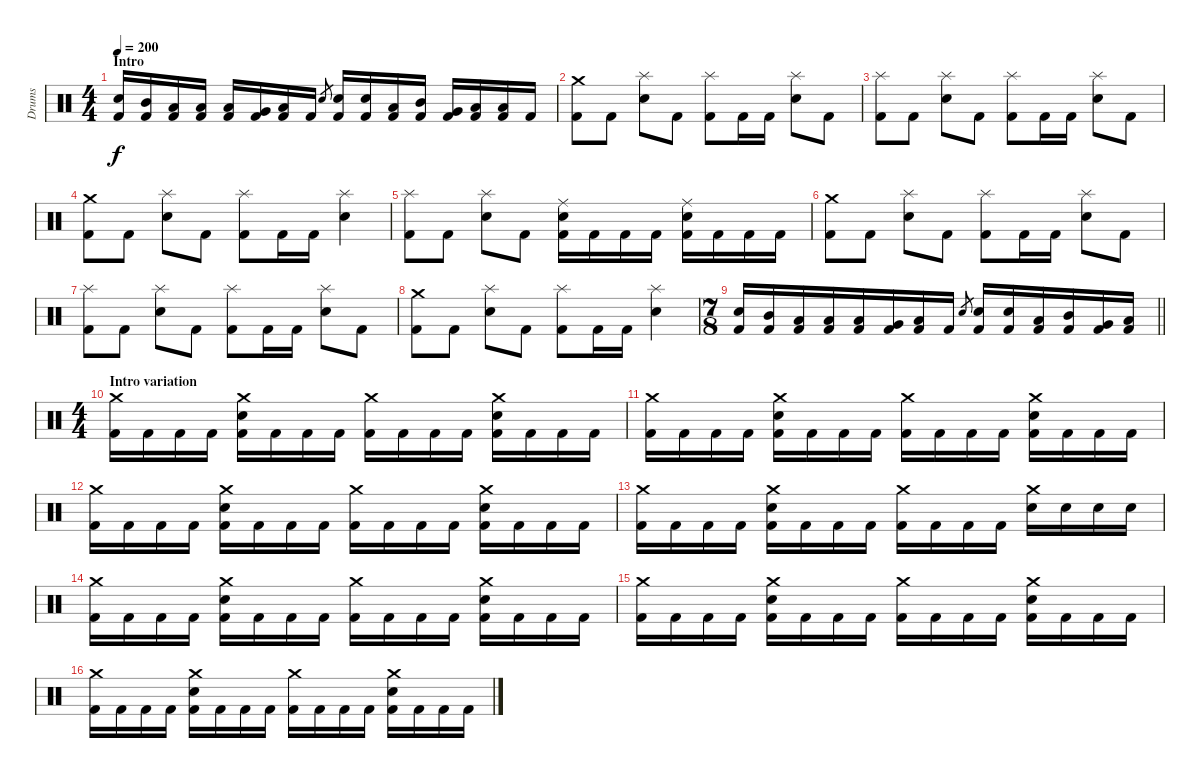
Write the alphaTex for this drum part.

\track ("Drums" "Drums") {instrument percussion}
\staff {score}
\articulation defaults
\ts (4 4)
\section ("" "Intro")
\tempo 200
\clef neutral
\ks c
("Electric Snare (hit)" "Kick (hit) 2").16{dy f} ("Mid Tom (hit)" "Kick (hit) 2").16 ("Low Tom (hit)" "Kick (hit) 2").16 ("Low Tom (hit)" "Kick (hit) 2").16 ("Low Tom (hit)" "Kick (hit) 2").16 ("Very Low Tom (hit)" "Kick (hit) 2").16 ("Low Floor Tom (hit)" "Kick (hit) 2").16 "Kick (hit) 2".16 "Electric Snare (hit)".8{gr} ("Electric Snare (hit)" "Kick (hit) 2").16 ("Electric Snare (hit)" "Kick (hit) 2").16 ("Low Tom (hit)" "Kick (hit) 2").16 ("Mid Tom (hit)" "Kick (hit) 2").16 ("Very Low Tom (hit)" "Kick (hit) 2").16 ("Low Floor Tom (hit)" "Kick (hit) 2").16 ("Low Floor Tom (hit)" "Kick (hit) 2").16 "Kick (hit) 2".16 |
("Crash medium (hit)" "Kick (hit) 2").8 "Kick (hit) 2".8 ("Splash (hit)" "Electric Snare (hit)").8 "Kick (hit) 2".8 ("Splash (hit)" "Kick (hit) 2").8 "Kick (hit) 2".16 "Kick (hit) 2".16 ("Splash (hit)" "Electric Snare (hit)").8 "Kick (hit) 2".8 |
("Splash (hit)" "Kick (hit) 2").8 "Kick (hit) 2".8 ("Splash (hit)" "Electric Snare (hit)").8 "Kick (hit) 2".8 ("Splash (hit)" "Kick (hit) 2").8 "Kick (hit) 2".16 "Kick (hit) 2".16 ("Splash (hit)" "Electric Snare (hit)").8 "Kick (hit) 2".8 |
("Crash medium (hit)" "Kick (hit) 2").8 "Kick (hit) 2".8 ("Splash (hit)" "Electric Snare (hit)").8 "Kick (hit) 2".8 ("Splash (hit)" "Kick (hit) 2").8 "Kick (hit) 2".16 "Kick (hit) 2".16 ("Splash (hit)" "Electric Snare (hit)").4 |
("Splash (hit)" "Kick (hit) 2").8 "Kick (hit) 2".8 ("Splash (hit)" "Electric Snare (hit)").8 "Kick (hit) 2".8 ("Ride (middle)" "Electric Snare (hit)" "Kick (hit) 2").16 "Kick (hit) 2".16 "Kick (hit) 2".16 "Kick (hit) 2".16 ("Ride (middle)" "Electric Snare (hit)" "Kick (hit) 2").16 "Kick (hit) 2".16 "Kick (hit) 2".16 "Kick (hit) 2".16 |
("Crash medium (hit)" "Kick (hit) 2").8 "Kick (hit) 2".8 ("Splash (hit)" "Electric Snare (hit)").8 "Kick (hit) 2".8 ("Splash (hit)" "Kick (hit) 2").8 "Kick (hit) 2".16 "Kick (hit) 2".16 ("Splash (hit)" "Electric Snare (hit)").8 "Kick (hit) 2".8 |
("Splash (hit)" "Kick (hit) 2").8 "Kick (hit) 2".8 ("Splash (hit)" "Electric Snare (hit)").8 "Kick (hit) 2".8 ("Splash (hit)" "Kick (hit) 2").8 "Kick (hit) 2".16 "Kick (hit) 2".16 ("Splash (hit)" "Electric Snare (hit)").8 "Kick (hit) 2".8 |
("Crash medium (hit)" "Kick (hit) 2").8 "Kick (hit) 2".8 ("Splash (hit)" "Electric Snare (hit)").8 "Kick (hit) 2".8 ("Splash (hit)" "Kick (hit) 2").8 "Kick (hit) 2".16 "Kick (hit) 2".16 ("Splash (hit)" "Electric Snare (hit)").4 |
\ts (7 8)
\barLineRight lightlight
("Electric Snare (hit)" "Kick (hit) 2").16 ("Mid Tom (hit)" "Kick (hit) 2").16 ("Low Tom (hit)" "Kick (hit) 2").16 ("Low Tom (hit)" "Kick (hit) 2").16 ("Low Tom (hit)" "Kick (hit) 2").16 ("Very Low Tom (hit)" "Kick (hit) 2").16 ("Low Floor Tom (hit)" "Kick (hit) 2").16 "Kick (hit) 2".16 "Electric Snare (hit)".8{gr} ("Electric Snare (hit)" "Kick (hit) 2").16 ("Electric Snare (hit)" "Kick (hit) 2").16 ("Low Tom (hit)" "Kick (hit) 2").16 ("Mid Tom (hit)" "Kick (hit) 2").16 ("Very Low Tom (hit)" "Kick (hit) 2").16 ("Low Floor Tom (hit)" "Kick (hit) 2").16 |
\ts (4 4)
\section ("" "Intro variation")
("Crash medium (hit)" "Kick (hit) 2").16 "Kick (hit) 2".16 "Kick (hit) 2".16 "Kick (hit) 2".16 ("Crash medium (hit)" "Electric Snare (hit)" "Kick (hit) 2").16 "Kick (hit) 2".16 "Kick (hit) 2".16 "Kick (hit) 2".16 ("Crash medium (hit)" "Kick (hit) 2").16 "Kick (hit) 2".16 "Kick (hit) 2".16 "Kick (hit) 2".16 ("Crash medium (hit)" "Electric Snare (hit)" "Kick (hit) 2").16 "Kick (hit) 2".16 "Kick (hit) 2".16 "Kick (hit) 2".16 |
("Crash medium (hit)" "Kick (hit) 2").16 "Kick (hit) 2".16 "Kick (hit) 2".16 "Kick (hit) 2".16 ("Crash medium (hit)" "Electric Snare (hit)" "Kick (hit) 2").16 "Kick (hit) 2".16 "Kick (hit) 2".16 "Kick (hit) 2".16 ("Crash medium (hit)" "Kick (hit) 2").16 "Kick (hit) 2".16 "Kick (hit) 2".16 "Kick (hit) 2".16 ("Crash medium (hit)" "Electric Snare (hit)" "Kick (hit) 2").16 "Kick (hit) 2".16 "Kick (hit) 2".16 "Kick (hit) 2".16 |
("Crash medium (hit)" "Kick (hit) 2").16 "Kick (hit) 2".16 "Kick (hit) 2".16 "Kick (hit) 2".16 ("Crash medium (hit)" "Electric Snare (hit)" "Kick (hit) 2").16 "Kick (hit) 2".16 "Kick (hit) 2".16 "Kick (hit) 2".16 ("Crash medium (hit)" "Kick (hit) 2").16 "Kick (hit) 2".16 "Kick (hit) 2".16 "Kick (hit) 2".16 ("Crash medium (hit)" "Electric Snare (hit)" "Kick (hit) 2").16 "Kick (hit) 2".16 "Kick (hit) 2".16 "Kick (hit) 2".16 |
("Crash medium (hit)" "Kick (hit) 2").16 "Kick (hit) 2".16 "Kick (hit) 2".16 "Kick (hit) 2".16 ("Crash medium (hit)" "Electric Snare (hit)" "Kick (hit) 2").16 "Kick (hit) 2".16 "Kick (hit) 2".16 "Kick (hit) 2".16 ("Crash medium (hit)" "Kick (hit) 2").16 "Kick (hit) 2".16 "Kick (hit) 2".16 "Kick (hit) 2".16 ("Crash medium (hit)" "Electric Snare (hit)").16 "Electric Snare (hit)".16 "Electric Snare (hit)".16 "Electric Snare (hit)".16 |
("Crash medium (hit)" "Kick (hit) 2").16 "Kick (hit) 2".16 "Kick (hit) 2".16 "Kick (hit) 2".16 ("Crash medium (hit)" "Electric Snare (hit)" "Kick (hit) 2").16 "Kick (hit) 2".16 "Kick (hit) 2".16 "Kick (hit) 2".16 ("Crash medium (hit)" "Kick (hit) 2").16 "Kick (hit) 2".16 "Kick (hit) 2".16 "Kick (hit) 2".16 ("Crash medium (hit)" "Electric Snare (hit)" "Kick (hit) 2").16 "Kick (hit) 2".16 "Kick (hit) 2".16 "Kick (hit) 2".16 |
("Crash medium (hit)" "Kick (hit) 2").16 "Kick (hit) 2".16 "Kick (hit) 2".16 "Kick (hit) 2".16 ("Crash medium (hit)" "Electric Snare (hit)" "Kick (hit) 2").16 "Kick (hit) 2".16 "Kick (hit) 2".16 "Kick (hit) 2".16 ("Crash medium (hit)" "Kick (hit) 2").16 "Kick (hit) 2".16 "Kick (hit) 2".16 "Kick (hit) 2".16 ("Crash medium (hit)" "Electric Snare (hit)" "Kick (hit) 2").16 "Kick (hit) 2".16 "Kick (hit) 2".16 "Kick (hit) 2".16 |
("Crash medium (hit)" "Kick (hit) 2").16 "Kick (hit) 2".16 "Kick (hit) 2".16 "Kick (hit) 2".16 ("Crash medium (hit)" "Electric Snare (hit)" "Kick (hit) 2").16 "Kick (hit) 2".16 "Kick (hit) 2".16 "Kick (hit) 2".16 ("Crash medium (hit)" "Kick (hit) 2").16 "Kick (hit) 2".16 "Kick (hit) 2".16 "Kick (hit) 2".16 ("Crash medium (hit)" "Electric Snare (hit)" "Kick (hit) 2").16 "Kick (hit) 2".16 "Kick (hit) 2".16 "Kick (hit) 2".16
